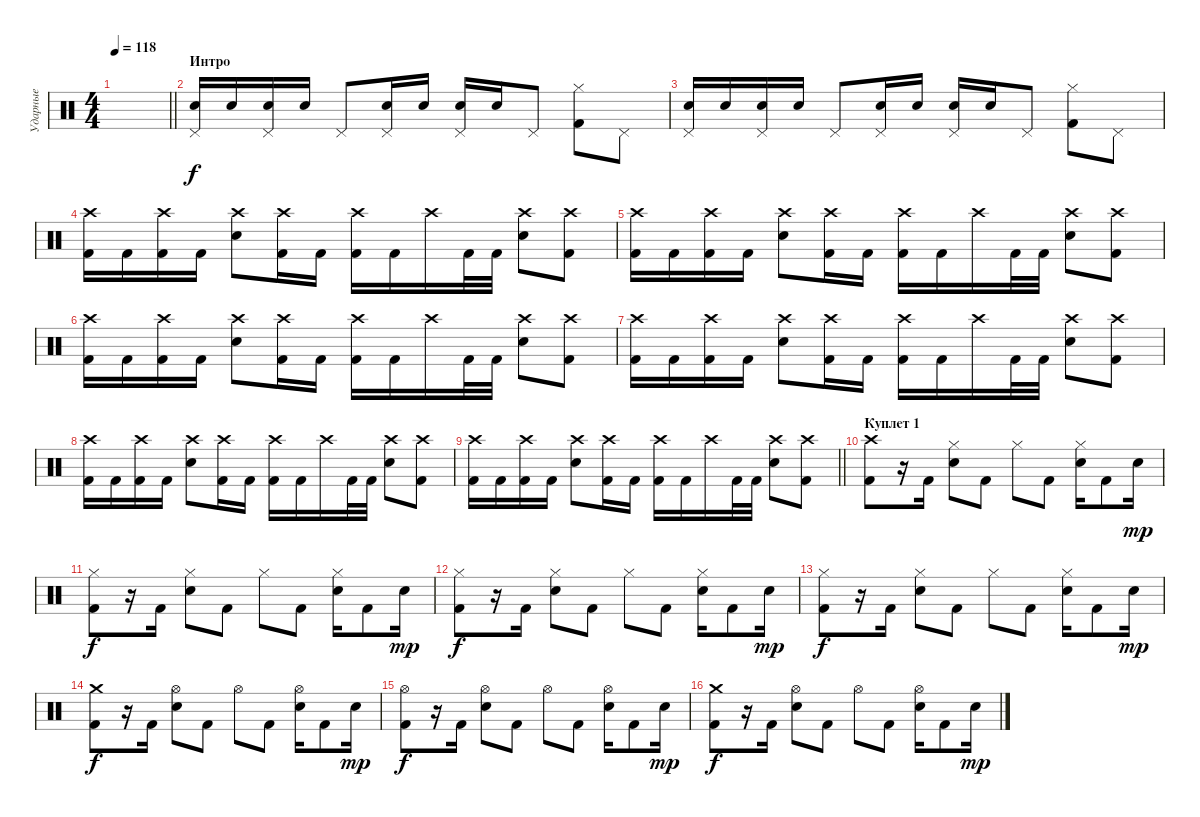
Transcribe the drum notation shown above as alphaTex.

\track ("Ударные" "Ударные") {instrument percussion}
\staff {score}
\articulation defaults
\ts (4 4)
\tempo 118
\clef neutral
\barLineRight lightlight
\ks c
|
\section ("" "Интро")
("Pedal Hi-Hat (hit)" "Snare (hit) 2").16 "Snare (hit) 2".16 ("Pedal Hi-Hat (hit)" "Snare (hit) 2").16 "Snare (hit) 2".16 "Pedal Hi-Hat (hit)".8 ("Pedal Hi-Hat (hit)" "Snare (hit) 2").16 "Snare (hit) 2".16 ("Pedal Hi-Hat (hit)" "Snare (hit) 2").16 "Snare (hit) 2".16 "Pedal Hi-Hat (hit)".8 ("Hi-Hat (closed)" "Kick (hit) 2").8 "Pedal Hi-Hat (hit)".8 |
("Pedal Hi-Hat (hit)" "Snare (hit) 2").16 "Snare (hit) 2".16 ("Pedal Hi-Hat (hit)" "Snare (hit) 2").16 "Snare (hit) 2".16 "Pedal Hi-Hat (hit)".8 ("Pedal Hi-Hat (hit)" "Snare (hit) 2").16 "Snare (hit) 2".16 ("Pedal Hi-Hat (hit)" "Snare (hit) 2").16 "Snare (hit) 2".16 "Pedal Hi-Hat (hit)".8 ("Hi-Hat (closed)" "Kick (hit) 2").8 "Pedal Hi-Hat (hit)".8 |
("Crash high (hit)" "Kick (hit) 2").16 "Kick (hit) 2".16 ("Crash high (hit)" "Kick (hit) 2").16 "Kick (hit) 2".16 ("Crash high (hit)" "Snare (hit) 2").8 ("Crash high (hit)" "Kick (hit) 2").16 "Kick (hit) 2".16 ("Crash high (hit)" "Kick (hit) 2").16 "Kick (hit) 2".16 "Crash high (hit)".16 "Kick (hit) 2".32 "Kick (hit) 2".32 ("Crash high (hit)" "Snare (hit) 2").8 ("Crash high (hit)" "Kick (hit) 2").8 |
("Crash high (hit)" "Kick (hit) 2").16 "Kick (hit) 2".16 ("Crash high (hit)" "Kick (hit) 2").16 "Kick (hit) 2".16 ("Crash high (hit)" "Snare (hit) 2").8 ("Crash high (hit)" "Kick (hit) 2").16 "Kick (hit) 2".16 ("Crash high (hit)" "Kick (hit) 2").16 "Kick (hit) 2".16 "Crash high (hit)".16 "Kick (hit) 2".32 "Kick (hit) 2".32 ("Crash high (hit)" "Snare (hit) 2").8 ("Crash high (hit)" "Kick (hit) 2").8 |
("Crash high (hit)" "Kick (hit) 2").16 "Kick (hit) 2".16 ("Crash high (hit)" "Kick (hit) 2").16 "Kick (hit) 2".16 ("Crash high (hit)" "Snare (hit) 2").8 ("Crash high (hit)" "Kick (hit) 2").16 "Kick (hit) 2".16 ("Crash high (hit)" "Kick (hit) 2").16 "Kick (hit) 2".16 "Crash high (hit)".16 "Kick (hit) 2".32 "Kick (hit) 2".32 ("Crash high (hit)" "Snare (hit) 2").8 ("Crash high (hit)" "Kick (hit) 2").8 |
("Crash high (hit)" "Kick (hit) 2").16 "Kick (hit) 2".16 ("Crash high (hit)" "Kick (hit) 2").16 "Kick (hit) 2".16 ("Crash high (hit)" "Snare (hit) 2").8 ("Crash high (hit)" "Kick (hit) 2").16 "Kick (hit) 2".16 ("Crash high (hit)" "Kick (hit) 2").16 "Kick (hit) 2".16 "Crash high (hit)".16 "Kick (hit) 2".32 "Kick (hit) 2".32 ("Crash high (hit)" "Snare (hit) 2").8 ("Crash high (hit)" "Kick (hit) 2").8 |
("Crash high (hit)" "Kick (hit) 2").16 "Kick (hit) 2".16 ("Crash high (hit)" "Kick (hit) 2").16 "Kick (hit) 2".16 ("Crash high (hit)" "Snare (hit) 2").8 ("Crash high (hit)" "Kick (hit) 2").16 "Kick (hit) 2".16 ("Crash high (hit)" "Kick (hit) 2").16 "Kick (hit) 2".16 "Crash high (hit)".16 "Kick (hit) 2".32 "Kick (hit) 2".32 ("Crash high (hit)" "Snare (hit) 2").8 ("Crash high (hit)" "Kick (hit) 2").8 |
\barLineRight lightlight
("Crash high (hit)" "Kick (hit) 2").16 "Kick (hit) 2".16 ("Crash high (hit)" "Kick (hit) 2").16 "Kick (hit) 2".16 ("Crash high (hit)" "Snare (hit) 2").8 ("Crash high (hit)" "Kick (hit) 2").16 "Kick (hit) 2".16 ("Crash high (hit)" "Kick (hit) 2").16 "Kick (hit) 2".16 "Crash high (hit)".16 "Kick (hit) 2".32 "Kick (hit) 2".32 ("Crash high (hit)" "Snare (hit) 2").8 ("Crash high (hit)" "Kick (hit) 2").8 |
\section ("" "Куплет 1")
("Crash high (hit)" "Kick (hit) 2").8 r.16 "Kick (hit) 2".16 ("Hi-Hat (closed)" "Snare (hit) 2").8 "Kick (hit) 2".8 "Hi-Hat (closed)".8 "Kick (hit) 2".8 ("Hi-Hat (closed)" "Snare (hit) 2").16 "Kick (hit) 2".8 "Snare (hit) 2".16{dy mp} |
("Hi-Hat (closed)" "Kick (hit) 2").8{dy f} r.16 "Kick (hit) 2".16 ("Hi-Hat (closed)" "Snare (hit) 2").8 "Kick (hit) 2".8 "Hi-Hat (closed)".8 "Kick (hit) 2".8 ("Hi-Hat (closed)" "Snare (hit) 2").16 "Kick (hit) 2".8 "Snare (hit) 2".16{dy mp} |
("Hi-Hat (closed)" "Kick (hit) 2").8{dy f} r.16 "Kick (hit) 2".16 ("Hi-Hat (closed)" "Snare (hit) 2").8 "Kick (hit) 2".8 "Hi-Hat (closed)".8 "Kick (hit) 2".8 ("Hi-Hat (closed)" "Snare (hit) 2").16 "Kick (hit) 2".8 "Snare (hit) 2".16{dy mp} |
("Hi-Hat (closed)" "Kick (hit) 2").8{dy f} r.16 "Kick (hit) 2".16 ("Hi-Hat (closed)" "Snare (hit) 2").8 "Kick (hit) 2".8 "Hi-Hat (closed)".8 "Kick (hit) 2".8 ("Hi-Hat (closed)" "Snare (hit) 2").16 "Kick (hit) 2".8 "Snare (hit) 2".16{dy mp} |
("Crash medium (hit)" "Kick (hit) 2").8{dy f} r.16 "Kick (hit) 2".16 ("Hi-Hat (open)" "Snare (hit) 2").8 "Kick (hit) 2".8 "Hi-Hat (open)".8 "Kick (hit) 2".8 ("Hi-Hat (open)" "Snare (hit) 2").16 "Kick (hit) 2".8 "Snare (hit) 2".16{dy mp} |
("Hi-Hat (open)" "Kick (hit) 2").8{dy f} r.16 "Kick (hit) 2".16 ("Hi-Hat (open)" "Snare (hit) 2").8 "Kick (hit) 2".8 "Hi-Hat (open)".8 "Kick (hit) 2".8 ("Hi-Hat (open)" "Snare (hit) 2").16 "Kick (hit) 2".8 "Snare (hit) 2".16{dy mp} |
("Crash medium (hit)" "Kick (hit) 2").8{dy f} r.16 "Kick (hit) 2".16 ("Hi-Hat (open)" "Snare (hit) 2").8 "Kick (hit) 2".8 "Hi-Hat (open)".8 "Kick (hit) 2".8 ("Hi-Hat (open)" "Snare (hit) 2").16 "Kick (hit) 2".8 "Snare (hit) 2".16{dy mp}
